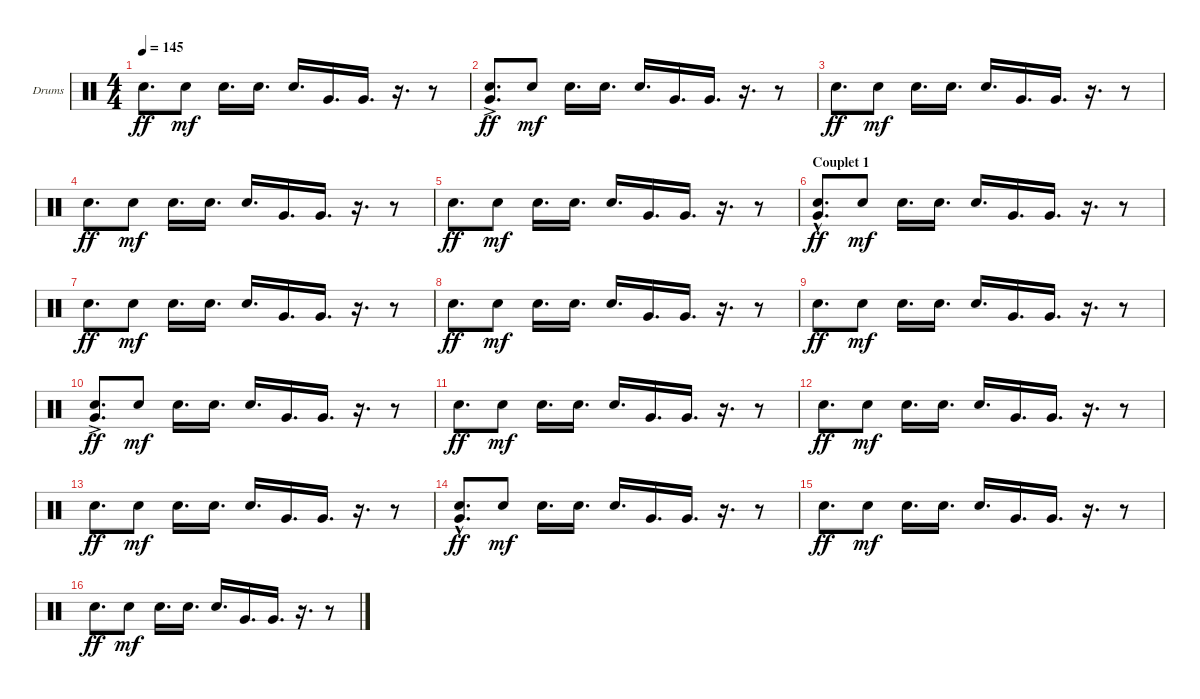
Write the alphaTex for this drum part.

\defaultSystemsLayout 4
\bracketExtendMode groupsimilarinstruments
\firstSystemTrackNameOrientation horizontal
\otherSystemsTrackNameOrientation horizontal
\track ("Drumkit" "Drums") {instrument percussion}
\staff {score}
\articulation defaults
\ts (4 4)
\tempo 145
\clef neutral
\ks c "Snare (hit) 2".8{d dy ff} "Snare (hit) 2".8{dy mf} "Snare (hit) 2".16{d} "Snare (hit) 2".16{d} "Snare (hit) 2".16{d} "Very Low Tom (hit)".16{d} "Very Low Tom (hit)".16{d}
r.16{d} r.8 |
("Snare (hit) 2" "Very Low Tom (hit)"{ac}).8{d dy ff} "Snare (hit) 2".8{dy mf} "Snare (hit) 2".16{d} "Snare (hit) 2".16{d} "Snare (hit) 2".16{d} "Very Low Tom (hit)".16{d} "Very Low Tom (hit)".16{d} r.16{d} r.8 |
"Snare (hit) 2".8{d dy ff} "Snare (hit) 2".8{dy mf} "Snare (hit) 2".16{d} "Snare (hit) 2".16{d} "Snare (hit) 2".16{d} "Very Low Tom (hit)".16{d} "Very Low Tom (hit)".16{d} r.16{d} r.8 |
"Snare (hit) 2".8{d dy ff} "Snare (hit) 2".8{dy mf} "Snare (hit) 2".16{d} "Snare (hit) 2".16{d} "Snare (hit) 2".16{d} "Very Low Tom (hit)".16{d} "Very Low Tom (hit)".16{d} r.16{d} r.8 |
"Snare (hit) 2".8{d dy ff} "Snare (hit) 2".8{dy mf} "Snare (hit) 2".16{d} "Snare (hit) 2".16{d} "Snare (hit) 2".16{d} "Very Low Tom (hit)".16{d} "Very Low Tom (hit)".16{d} r.16{d} r.8 |
\section ("" "Couplet 1")
("Snare (hit) 2" "Very Low Tom (hit)"{hac}).8{d dy ff} "Snare (hit) 2".8{dy mf} "Snare (hit) 2".16{d} "Snare (hit) 2".16{d} "Snare (hit) 2".16{d} "Very Low Tom (hit)".16{d} "Very Low Tom (hit)".16{d} r.16{d} r.8 |
"Snare (hit) 2".8{d dy ff} "Snare (hit) 2".8{dy mf} "Snare (hit) 2".16{d} "Snare (hit) 2".16{d} "Snare (hit) 2".16{d} "Very Low Tom (hit)".16{d} "Very Low Tom (hit)".16{d} r.16{d} r.8 |
"Snare (hit) 2".8{d dy ff} "Snare (hit) 2".8{dy mf} "Snare (hit) 2".16{d} "Snare (hit) 2".16{d} "Snare (hit) 2".16{d} "Very Low Tom (hit)".16{d} "Very Low Tom (hit)".16{d} r.16{d} r.8 |
"Snare (hit) 2".8{d dy ff} "Snare (hit) 2".8{dy mf} "Snare (hit) 2".16{d} "Snare (hit) 2".16{d} "Snare (hit) 2".16{d} "Very Low Tom (hit)".16{d} "Very Low Tom (hit)".16{d} r.16{d} r.8 |
("Snare (hit) 2" "Very Low Tom (hit)"{ac}).8{d dy ff} "Snare (hit) 2".8{dy mf} "Snare (hit) 2".16{d} "Snare (hit) 2".16{d} "Snare (hit) 2".16{d} "Very Low Tom (hit)".16{d} "Very Low Tom (hit)".16{d} r.16{d} r.8 |
"Snare (hit) 2".8{d dy ff} "Snare (hit) 2".8{dy mf} "Snare (hit) 2".16{d} "Snare (hit) 2".16{d} "Snare (hit) 2".16{d} "Very Low Tom (hit)".16{d} "Very Low Tom (hit)".16{d} r.16{d} r.8 |
"Snare (hit) 2".8{d dy ff} "Snare (hit) 2".8{dy mf} "Snare (hit) 2".16{d} "Snare (hit) 2".16{d} "Snare (hit) 2".16{d} "Very Low Tom (hit)".16{d} "Very Low Tom (hit)".16{d} r.16{d} r.8 |
"Snare (hit) 2".8{d dy ff} "Snare (hit) 2".8{dy mf} "Snare (hit) 2".16{d} "Snare (hit) 2".16{d} "Snare (hit) 2".16{d} "Very Low Tom (hit)".16{d} "Very Low Tom (hit)".16{d} r.16{d} r.8 |
("Snare (hit) 2" "Very Low Tom (hit)"{hac}).8{d dy ff} "Snare (hit) 2".8{dy mf} "Snare (hit) 2".16{d} "Snare (hit) 2".16{d} "Snare (hit) 2".16{d} "Very Low Tom (hit)".16{d} "Very Low Tom (hit)".16{d} r.16{d} r.8 |
"Snare (hit) 2".8{d dy ff} "Snare (hit) 2".8{dy mf} "Snare (hit) 2".16{d} "Snare (hit) 2".16{d} "Snare (hit) 2".16{d} "Very Low Tom (hit)".16{d} "Very Low Tom (hit)".16{d} r.16{d} r.8 |
"Snare (hit) 2".8{d dy ff} "Snare (hit) 2".8{dy mf} "Snare (hit) 2".16{d} "Snare (hit) 2".16{d} "Snare (hit) 2".16{d} "Very Low Tom (hit)".16{d} "Very Low Tom (hit)".16{d} r.16{d} r.8
